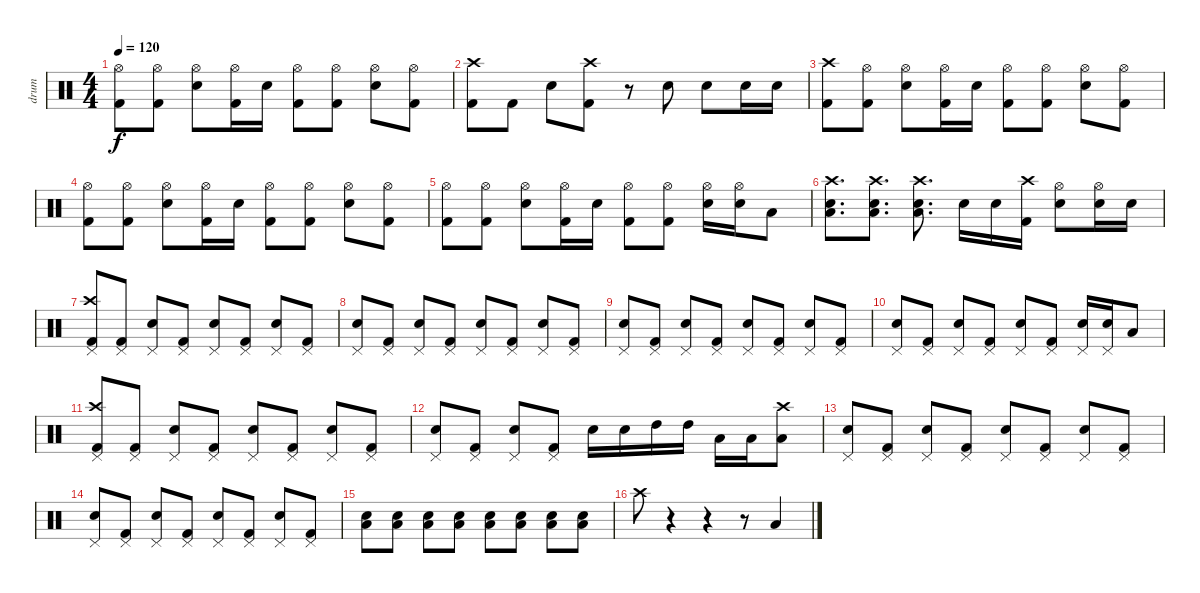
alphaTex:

\track ("drum" "drum") {instrument percussion}
\staff {score}
\articulation defaults
\ts (4 4)
\tempo 120
\clef neutral
\ks c
("Hi-Hat (open)" "Kick (hit) 2").8{dy f} ("Hi-Hat (open)" "Kick (hit) 2").8 ("Hi-Hat (open)" "Snare (hit) 2").8 ("Hi-Hat (open)" "Kick (hit) 2").16 "Snare (hit) 2".16 ("Hi-Hat (open)" "Kick (hit) 2").8 ("Hi-Hat (open)" "Kick (hit) 2").8 ("Hi-Hat (open)" "Snare (hit) 2").8 ("Hi-Hat (open)" "Kick (hit) 2").8 |
("Crash high (hit)" "Kick (hit) 2").8 "Kick (hit) 2".8 "Snare (hit) 2".8 ("Crash high (hit)" "Kick (hit) 2").8 r.8 "Snare (hit) 2".8 "Snare (hit) 2".8 "Snare (hit) 2".16 "Snare (hit) 2".16 |
("Crash high (hit)" "Kick (hit) 2").8 ("Hi-Hat (open)" "Kick (hit) 2").8 ("Hi-Hat (open)" "Snare (hit) 2").8 ("Hi-Hat (open)" "Kick (hit) 2").16 "Snare (hit) 2".16 ("Hi-Hat (open)" "Kick (hit) 2").8 ("Hi-Hat (open)" "Kick (hit) 2").8 ("Hi-Hat (open)" "Snare (hit) 2").8 ("Hi-Hat (open)" "Kick (hit) 2").8 |
("Hi-Hat (open)" "Kick (hit) 2").8 ("Hi-Hat (open)" "Kick (hit) 2").8 ("Hi-Hat (open)" "Snare (hit) 2").8 ("Hi-Hat (open)" "Kick (hit) 2").16 "Snare (hit) 2".16 ("Hi-Hat (open)" "Kick (hit) 2").8 ("Hi-Hat (open)" "Kick (hit) 2").8 ("Hi-Hat (open)" "Snare (hit) 2").8 ("Hi-Hat (open)" "Kick (hit) 2").8 |
("Hi-Hat (open)" "Kick (hit) 2").8 ("Hi-Hat (open)" "Kick (hit) 2").8 ("Hi-Hat (open)" "Snare (hit) 2").8 ("Hi-Hat (open)" "Kick (hit) 2").16 "Snare (hit) 2".16 ("Hi-Hat (open)" "Kick (hit) 2").8 ("Hi-Hat (open)" "Kick (hit) 2").8 ("Hi-Hat (open)" "Snare (hit) 2").16 ("Hi-Hat (open)" "Snare (hit) 2").16 "Low Tom (hit)".8 |
("Crash high (hit)" "Low Floor Tom (hit)" "Snare (hit) 2").8{d} ("Crash high (hit)" "Low Floor Tom (hit)" "Snare (hit) 2").8{d} ("Crash high (hit)" "Low Floor Tom (hit)" "Snare (hit) 2").8{d} "Snare (hit) 2".16 "Snare (hit) 2".16 ("Crash high (hit)" "Kick (hit) 2").16 ("Hi-Hat (open)" "Snare (hit) 2").8 ("Hi-Hat (open)" "Snare (hit) 2").16 "Snare (hit) 2".16 |
("Crash high (hit)" "Pedal Hi-Hat (hit)" "Kick (hit) 2").8 ("Pedal Hi-Hat (hit)" "Kick (hit) 2").8 ("Pedal Hi-Hat (hit)" "Snare (hit) 2").8 ("Pedal Hi-Hat (hit)" "Kick (hit) 2").8 ("Pedal Hi-Hat (hit)" "Snare (hit) 2").8 ("Pedal Hi-Hat (hit)" "Kick (hit) 2").8 ("Pedal Hi-Hat (hit)" "Snare (hit) 2").8 ("Pedal Hi-Hat (hit)" "Kick (hit) 2").8 |
("Pedal Hi-Hat (hit)" "Snare (hit) 2").8 ("Pedal Hi-Hat (hit)" "Kick (hit) 2").8 ("Pedal Hi-Hat (hit)" "Snare (hit) 2").8 ("Pedal Hi-Hat (hit)" "Kick (hit) 2").8 ("Pedal Hi-Hat (hit)" "Snare (hit) 2").8 ("Pedal Hi-Hat (hit)" "Kick (hit) 2").8 ("Pedal Hi-Hat (hit)" "Snare (hit) 2").8 ("Pedal Hi-Hat (hit)" "Kick (hit) 2").8 |
("Pedal Hi-Hat (hit)" "Snare (hit) 2").8 ("Pedal Hi-Hat (hit)" "Kick (hit) 2").8 ("Pedal Hi-Hat (hit)" "Snare (hit) 2").8 ("Pedal Hi-Hat (hit)" "Kick (hit) 2").8 ("Pedal Hi-Hat (hit)" "Snare (hit) 2").8 ("Pedal Hi-Hat (hit)" "Kick (hit) 2").8 ("Pedal Hi-Hat (hit)" "Snare (hit) 2").8 ("Pedal Hi-Hat (hit)" "Kick (hit) 2").8 |
("Pedal Hi-Hat (hit)" "Snare (hit) 2").8 ("Pedal Hi-Hat (hit)" "Kick (hit) 2").8 ("Pedal Hi-Hat (hit)" "Snare (hit) 2").8 ("Pedal Hi-Hat (hit)" "Kick (hit) 2").8 ("Pedal Hi-Hat (hit)" "Snare (hit) 2").8 ("Pedal Hi-Hat (hit)" "Kick (hit) 2").8 ("Pedal Hi-Hat (hit)" "Snare (hit) 2").16 ("Pedal Hi-Hat (hit)" "Snare (hit) 2").16 "Low Tom (hit)".8 |
("Crash high (hit)" "Pedal Hi-Hat (hit)" "Kick (hit) 2").8 ("Pedal Hi-Hat (hit)" "Kick (hit) 2").8 ("Pedal Hi-Hat (hit)" "Snare (hit) 2").8 ("Pedal Hi-Hat (hit)" "Kick (hit) 2").8 ("Pedal Hi-Hat (hit)" "Snare (hit) 2").8 ("Pedal Hi-Hat (hit)" "Kick (hit) 2").8 ("Pedal Hi-Hat (hit)" "Snare (hit) 2").8 ("Pedal Hi-Hat (hit)" "Kick (hit) 2").8 |
("Pedal Hi-Hat (hit)" "Snare (hit) 2").8 ("Pedal Hi-Hat (hit)" "Kick (hit) 2").8 ("Pedal Hi-Hat (hit)" "Snare (hit) 2").8 ("Pedal Hi-Hat (hit)" "Kick (hit) 2").8 "Snare (hit) 2".16 "Snare (hit) 2".16 "High Tom (hit)".16 "High Tom (hit)".16 "Low Tom (hit)".16 "Low Tom (hit)".16 ("Crash high (hit)" "Low Floor Tom (hit)").8 |
("Pedal Hi-Hat (hit)" "Snare (hit) 2").8 ("Pedal Hi-Hat (hit)" "Kick (hit) 2").8 ("Pedal Hi-Hat (hit)" "Snare (hit) 2").8 ("Pedal Hi-Hat (hit)" "Kick (hit) 2").8 ("Pedal Hi-Hat (hit)" "Snare (hit) 2").8 ("Pedal Hi-Hat (hit)" "Kick (hit) 2").8 ("Pedal Hi-Hat (hit)" "Snare (hit) 2").8 ("Pedal Hi-Hat (hit)" "Kick (hit) 2").8 |
("Pedal Hi-Hat (hit)" "Snare (hit) 2").8 ("Pedal Hi-Hat (hit)" "Kick (hit) 2").8 ("Pedal Hi-Hat (hit)" "Snare (hit) 2").8 ("Pedal Hi-Hat (hit)" "Kick (hit) 2").8 ("Pedal Hi-Hat (hit)" "Snare (hit) 2").8 ("Pedal Hi-Hat (hit)" "Kick (hit) 2").8 ("Pedal Hi-Hat (hit)" "Snare (hit) 2").8 ("Pedal Hi-Hat (hit)" "Kick (hit) 2").8 |
("Snare (hit) 2" "Low Floor Tom (hit)").8{volume 5} ("Snare (hit) 2" "Low Floor Tom (hit)").8{volume 9} ("Snare (hit) 2" "Low Floor Tom (hit)").8 ("Snare (hit) 2" "Low Floor Tom (hit)").8 ("Snare (hit) 2" "Low Floor Tom (hit)").8 ("Snare (hit) 2" "Low Floor Tom (hit)").8 ("Snare (hit) 2" "Low Floor Tom (hit)").8 ("Snare (hit) 2" "Low Floor Tom (hit)").8 |
"Crash high (hit)".8 r.4 r.4 r.8 "Low Floor Tom (hit)".4
